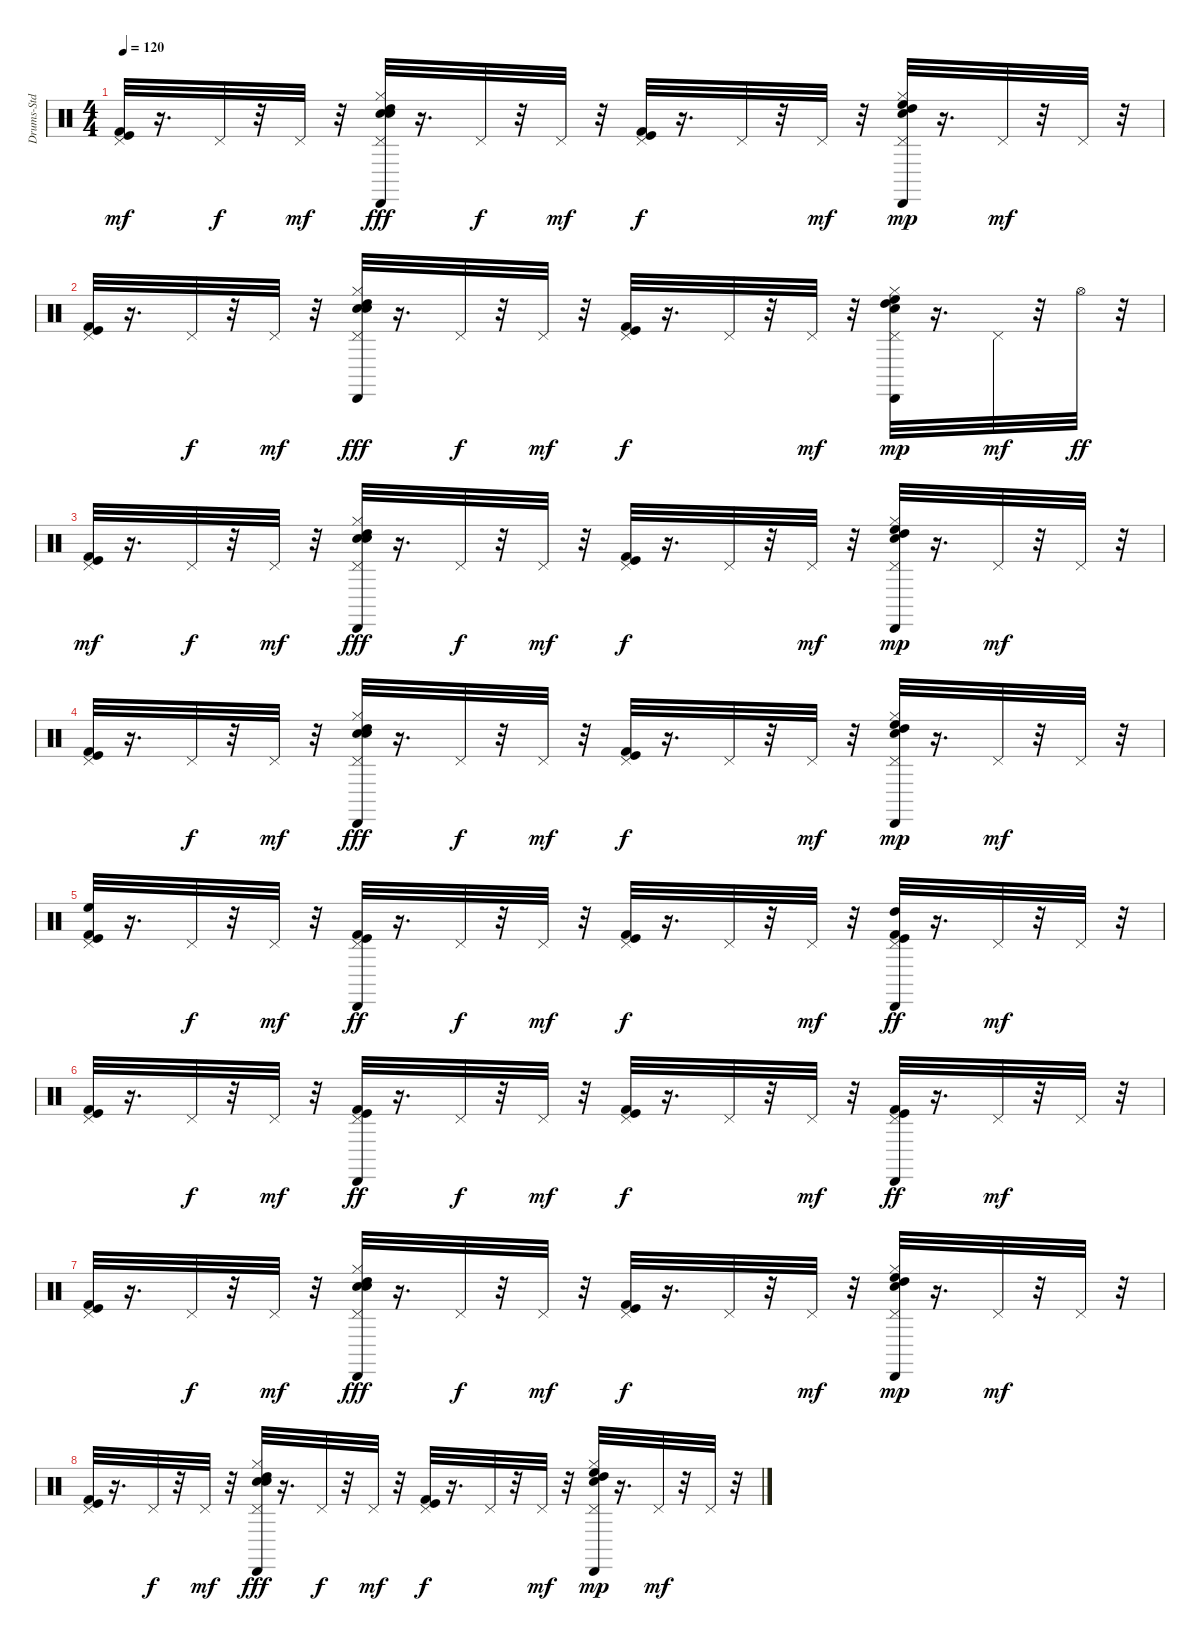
\track ("Drums-Std" "Drums-Std") {instrument percussion}
\staff {score}
\articulation defaults
\ts (4 4)
\tempo 120
\clef neutral
\ks c
("Pedal Hi-Hat (hit)" "Kick (hit) 2" "Kick (hit)").32{dy mf} r.16{d} "Pedal Hi-Hat (hit)".32{dy f} r.32 "Pedal Hi-Hat (hit)".32{dy mf} r.32 ("Snare (hit) 2" "High Tom (hit)" "Cabasa (hit)" "Hi-Hat (closed)" "Pedal Hi-Hat (hit)" "Electric Snare (hit)").32{dy fff} r.16{d} "Pedal Hi-Hat (hit)".32{dy f} r.32 "Pedal Hi-Hat (hit)".32{dy mf} r.32 ("Pedal Hi-Hat (hit)" "Kick (hit) 2" "Kick (hit)").32{dy f} r.16{d} "Pedal Hi-Hat (hit)".32 r.32 "Pedal Hi-Hat (hit)".32{dy mf} r.32 ("Snare (hit) 2" "High Floor Tom (hit)" "High Tom (hit)" "Cabasa (hit)" "Hi-Hat (closed)" "Pedal Hi-Hat (hit)").32{dy mp} r.16{d} "Pedal Hi-Hat (hit)".32{dy mf} r.32 "Pedal Hi-Hat (hit)".32 r.32 |
("Pedal Hi-Hat (hit)" "Kick (hit) 2" "Kick (hit)").32 r.16{d} "Pedal Hi-Hat (hit)".32{dy f} r.32 "Pedal Hi-Hat (hit)".32{dy mf} r.32 ("Snare (hit) 2" "High Tom (hit)" "Cabasa (hit)" "Hi-Hat (closed)" "Pedal Hi-Hat (hit)" "Electric Snare (hit)").32{dy fff} r.16{d} "Pedal Hi-Hat (hit)".32{dy f} r.32 "Pedal Hi-Hat (hit)".32{dy mf} r.32 ("Pedal Hi-Hat (hit)" "Kick (hit) 2" "Kick (hit)").32{dy f} r.16{d} "Pedal Hi-Hat (hit)".32 r.32 "Pedal Hi-Hat (hit)".32{dy mf} r.32 ("Snare (hit) 2" "High Floor Tom (hit)" "High Tom (hit)" "Cabasa (hit)" "Hi-Hat (closed)" "Pedal Hi-Hat (hit)").32{dy mp} r.16{d} "Pedal Hi-Hat (hit)".32{dy mf} r.32 "Hi-Hat (open)".32{dy ff} r.32 |
("Pedal Hi-Hat (hit)" "Kick (hit) 2" "Kick (hit)").32{dy mf} r.16{d} "Pedal Hi-Hat (hit)".32{dy f} r.32 "Pedal Hi-Hat (hit)".32{dy mf} r.32 ("Snare (hit) 2" "High Tom (hit)" "Cabasa (hit)" "Hi-Hat (closed)" "Pedal Hi-Hat (hit)" "Electric Snare (hit)").32{dy fff} r.16{d} "Pedal Hi-Hat (hit)".32{dy f} r.32 "Pedal Hi-Hat (hit)".32{dy mf} r.32 ("Pedal Hi-Hat (hit)" "Kick (hit) 2" "Kick (hit)").32{dy f} r.16{d} "Pedal Hi-Hat (hit)".32 r.32 "Pedal Hi-Hat (hit)".32{dy mf} r.32 ("Snare (hit) 2" "High Floor Tom (hit)" "High Tom (hit)" "Cabasa (hit)" "Hi-Hat (closed)" "Pedal Hi-Hat (hit)").32{dy mp} r.16{d} "Pedal Hi-Hat (hit)".32{dy mf} r.32 "Pedal Hi-Hat (hit)".32 r.32 |
("Pedal Hi-Hat (hit)" "Kick (hit) 2" "Kick (hit)").32 r.16{d} "Pedal Hi-Hat (hit)".32{dy f} r.32 "Pedal Hi-Hat (hit)".32{dy mf} r.32 ("Snare (hit) 2" "High Tom (hit)" "Cabasa (hit)" "Hi-Hat (closed)" "Pedal Hi-Hat (hit)" "Electric Snare (hit)").32{dy fff} r.16{d} "Pedal Hi-Hat (hit)".32{dy f} r.32 "Pedal Hi-Hat (hit)".32{dy mf} r.32 ("Pedal Hi-Hat (hit)" "Kick (hit) 2" "Kick (hit)").32{dy f} r.16{d} "Pedal Hi-Hat (hit)".32 r.32 "Pedal Hi-Hat (hit)".32{dy mf} r.32 ("Snare (hit) 2" "High Floor Tom (hit)" "High Tom (hit)" "Cabasa (hit)" "Hi-Hat (closed)" "Pedal Hi-Hat (hit)").32{dy mp} r.16{d} "Pedal Hi-Hat (hit)".32{dy mf} r.32 "Pedal Hi-Hat (hit)".32 r.32 |
("High Floor Tom (hit)" "Pedal Hi-Hat (hit)" "Kick (hit) 2" "Kick (hit)").32 r.16{d} "Pedal Hi-Hat (hit)".32{dy f} r.32 "Pedal Hi-Hat (hit)".32{dy mf} r.32 ("Kick (hit) 2" "Kick (hit)" "Cabasa (hit)" "Pedal Hi-Hat (hit)").32{dy ff} r.16{d} "Pedal Hi-Hat (hit)".32{dy f} r.32 "Pedal Hi-Hat (hit)".32{dy mf} r.32 ("Pedal Hi-Hat (hit)" "Kick (hit) 2" "Kick (hit)").32{dy f} r.16{d} "Pedal Hi-Hat (hit)".32 r.32 "Pedal Hi-Hat (hit)".32{dy mf} r.32 ("High Tom (hit)" "Kick (hit) 2" "Kick (hit)" "Cabasa (hit)" "Pedal Hi-Hat (hit)").32{dy ff} r.16{d} "Pedal Hi-Hat (hit)".32{dy mf} r.32 "Pedal Hi-Hat (hit)".32 r.32 |
("Pedal Hi-Hat (hit)" "Kick (hit) 2" "Kick (hit)").32 r.16{d} "Pedal Hi-Hat (hit)".32{dy f} r.32 "Pedal Hi-Hat (hit)".32{dy mf} r.32 ("Kick (hit) 2" "Kick (hit)" "Cabasa (hit)" "Pedal Hi-Hat (hit)").32{dy ff} r.16{d} "Pedal Hi-Hat (hit)".32{dy f} r.32 "Pedal Hi-Hat (hit)".32{dy mf} r.32 ("Pedal Hi-Hat (hit)" "Kick (hit) 2" "Kick (hit)").32{dy f} r.16{d} "Pedal Hi-Hat (hit)".32 r.32 "Pedal Hi-Hat (hit)".32{dy mf} r.32 ("Kick (hit) 2" "Kick (hit)" "Cabasa (hit)" "Pedal Hi-Hat (hit)").32{dy ff} r.16{d} "Pedal Hi-Hat (hit)".32{dy mf} r.32 "Pedal Hi-Hat (hit)".32 r.32 |
("Pedal Hi-Hat (hit)" "Kick (hit) 2" "Kick (hit)").32 r.16{d} "Pedal Hi-Hat (hit)".32{dy f} r.32 "Pedal Hi-Hat (hit)".32{dy mf} r.32 ("Snare (hit) 2" "High Tom (hit)" "Cabasa (hit)" "Hi-Hat (closed)" "Pedal Hi-Hat (hit)" "Electric Snare (hit)").32{dy fff} r.16{d} "Pedal Hi-Hat (hit)".32{dy f} r.32 "Pedal Hi-Hat (hit)".32{dy mf} r.32 ("Pedal Hi-Hat (hit)" "Kick (hit) 2" "Kick (hit)").32{dy f} r.16{d} "Pedal Hi-Hat (hit)".32 r.32 "Pedal Hi-Hat (hit)".32{dy mf} r.32 ("Snare (hit) 2" "High Floor Tom (hit)" "High Tom (hit)" "Cabasa (hit)" "Hi-Hat (closed)" "Pedal Hi-Hat (hit)").32{dy mp} r.16{d} "Pedal Hi-Hat (hit)".32{dy mf} r.32 "Pedal Hi-Hat (hit)".32 r.32 |
("Pedal Hi-Hat (hit)" "Kick (hit) 2" "Kick (hit)").32 r.16{d} "Pedal Hi-Hat (hit)".32{dy f} r.32 "Pedal Hi-Hat (hit)".32{dy mf} r.32 ("Snare (hit) 2" "High Tom (hit)" "Cabasa (hit)" "Hi-Hat (closed)" "Pedal Hi-Hat (hit)" "Electric Snare (hit)").32{dy fff} r.16{d} "Pedal Hi-Hat (hit)".32{dy f} r.32 "Pedal Hi-Hat (hit)".32{dy mf} r.32 ("Pedal Hi-Hat (hit)" "Kick (hit) 2" "Kick (hit)").32{dy f} r.16{d} "Pedal Hi-Hat (hit)".32 r.32 "Pedal Hi-Hat (hit)".32{dy mf} r.32 ("Snare (hit) 2" "High Floor Tom (hit)" "High Tom (hit)" "Cabasa (hit)" "Hi-Hat (closed)" "Pedal Hi-Hat (hit)").32{dy mp} r.16{d} "Pedal Hi-Hat (hit)".32{dy mf} r.32 "Pedal Hi-Hat (hit)".32 r.32
